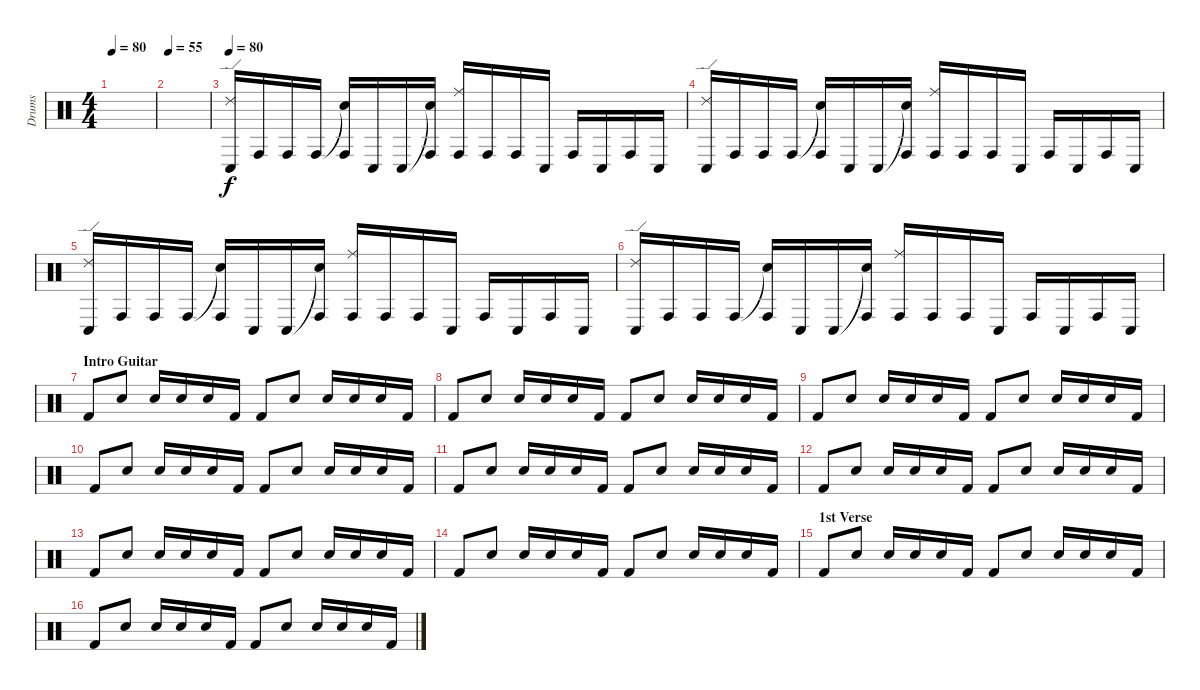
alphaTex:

\track ("Drums" "Drums") {instrument percussion}
\staff {score}
\articulation defaults
\ts (4 4)
\tempo 80
\tempo 55
\tempo 80
\clef neutral
\ks c
|
\tempo 55
|
\tempo 80
("Ride (edge) 2" "Conga low (hit)").16 "Conga high (hit)".16 "Conga high (hit)".16 "Conga high (hit)".16 ("Snare (hit)"{t} "Conga high (hit)").16 "Conga low (hit)".16 "Conga low (hit)".16 ("Snare (hit)"{t} "Conga high (hit)").16 ("Ride (middle)" "Conga high (hit)").16 "Conga high (hit)".16 "Conga high (hit)".16 "Conga low (hit)".16 "Conga high (hit)".16 "Conga low (hit)".16 "Conga high (hit)".16 "Conga low (hit)".16 |
("Ride (edge) 2" "Conga low (hit)").16 "Conga high (hit)".16 "Conga high (hit)".16 "Conga high (hit)".16 ("Snare (hit)"{t} "Conga high (hit)").16 "Conga low (hit)".16 "Conga low (hit)".16 ("Snare (hit)"{t} "Conga high (hit)").16 ("Ride (middle)" "Conga high (hit)").16 "Conga high (hit)".16 "Conga high (hit)".16 "Conga low (hit)".16 "Conga high (hit)".16 "Conga low (hit)".16 "Conga high (hit)".16 "Conga low (hit)".16 |
("Ride (edge) 2" "Conga low (hit)").16 "Conga high (hit)".16 "Conga high (hit)".16 "Conga high (hit)".16 ("Snare (hit)"{t} "Conga high (hit)").16 "Conga low (hit)".16 "Conga low (hit)".16 ("Snare (hit)"{t} "Conga high (hit)").16 ("Ride (middle)" "Conga high (hit)").16 "Conga high (hit)".16 "Conga high (hit)".16 "Conga low (hit)".16 "Conga high (hit)".16 "Conga low (hit)".16 "Conga high (hit)".16 "Conga low (hit)".16 |
("Ride (edge) 2" "Conga low (hit)").16 "Conga high (hit)".16 "Conga high (hit)".16 "Conga high (hit)".16 ("Snare (hit)"{t} "Conga high (hit)").16 "Conga low (hit)".16 "Conga low (hit)".16 ("Snare (hit)"{t} "Conga high (hit)").16 ("Ride (middle)" "Conga high (hit)").16 "Conga high (hit)".16 "Conga high (hit)".16 "Conga low (hit)".16 "Conga high (hit)".16 "Conga low (hit)".16 "Conga high (hit)".16 "Conga low (hit)".16 |
\section ("" "Intro Guitar")
"Kick (hit) 2".8 "Electric Snare (hit)".8 "Snare (hit) 2".16 "Snare (hit) 2".16 "Electric Snare (hit)".16 "Kick (hit) 2".16 "Kick (hit) 2".8 "Electric Snare (hit)".8 "Snare (hit) 2".16 "Snare (hit) 2".16 "Electric Snare (hit)".16 "Kick (hit) 2".16 |
"Kick (hit) 2".8 "Electric Snare (hit)".8 "Snare (hit) 2".16 "Snare (hit) 2".16 "Electric Snare (hit)".16 "Kick (hit) 2".16 "Kick (hit) 2".8 "Electric Snare (hit)".8 "Snare (hit) 2".16 "Snare (hit) 2".16 "Electric Snare (hit)".16 "Kick (hit) 2".16 |
"Kick (hit) 2".8 "Electric Snare (hit)".8 "Snare (hit) 2".16 "Snare (hit) 2".16 "Electric Snare (hit)".16 "Kick (hit) 2".16 "Kick (hit) 2".8 "Electric Snare (hit)".8 "Snare (hit) 2".16 "Snare (hit) 2".16 "Electric Snare (hit)".16 "Kick (hit) 2".16 |
"Kick (hit) 2".8 "Electric Snare (hit)".8 "Snare (hit) 2".16 "Snare (hit) 2".16 "Electric Snare (hit)".16 "Kick (hit) 2".16 "Kick (hit) 2".8 "Electric Snare (hit)".8 "Snare (hit) 2".16 "Snare (hit) 2".16 "Electric Snare (hit)".16 "Kick (hit) 2".16 |
"Kick (hit) 2".8 "Electric Snare (hit)".8 "Snare (hit) 2".16 "Snare (hit) 2".16 "Electric Snare (hit)".16 "Kick (hit) 2".16 "Kick (hit) 2".8 "Electric Snare (hit)".8 "Snare (hit) 2".16 "Snare (hit) 2".16 "Electric Snare (hit)".16 "Kick (hit) 2".16 |
"Kick (hit) 2".8 "Electric Snare (hit)".8 "Snare (hit) 2".16 "Snare (hit) 2".16 "Electric Snare (hit)".16 "Kick (hit) 2".16 "Kick (hit) 2".8 "Electric Snare (hit)".8 "Snare (hit) 2".16 "Snare (hit) 2".16 "Electric Snare (hit)".16 "Kick (hit) 2".16 |
"Kick (hit) 2".8 "Electric Snare (hit)".8 "Snare (hit) 2".16 "Snare (hit) 2".16 "Electric Snare (hit)".16 "Kick (hit) 2".16 "Kick (hit) 2".8 "Electric Snare (hit)".8 "Snare (hit) 2".16 "Snare (hit) 2".16 "Electric Snare (hit)".16 "Kick (hit) 2".16 |
"Kick (hit) 2".8 "Electric Snare (hit)".8 "Snare (hit) 2".16 "Snare (hit) 2".16 "Electric Snare (hit)".16 "Kick (hit) 2".16 "Kick (hit) 2".8 "Electric Snare (hit)".8 "Snare (hit) 2".16 "Snare (hit) 2".16 "Electric Snare (hit)".16 "Kick (hit) 2".16 |
\section ("" "1st Verse")
"Kick (hit) 2".8 "Electric Snare (hit)".8 "Snare (hit) 2".16 "Snare (hit) 2".16 "Electric Snare (hit)".16 "Kick (hit) 2".16 "Kick (hit) 2".8 "Electric Snare (hit)".8 "Snare (hit) 2".16 "Snare (hit) 2".16 "Electric Snare (hit)".16 "Kick (hit) 2".16 |
"Kick (hit) 2".8 "Electric Snare (hit)".8 "Snare (hit) 2".16 "Snare (hit) 2".16 "Electric Snare (hit)".16 "Kick (hit) 2".16 "Kick (hit) 2".8 "Electric Snare (hit)".8 "Snare (hit) 2".16 "Snare (hit) 2".16 "Electric Snare (hit)".16 "Kick (hit) 2".16
